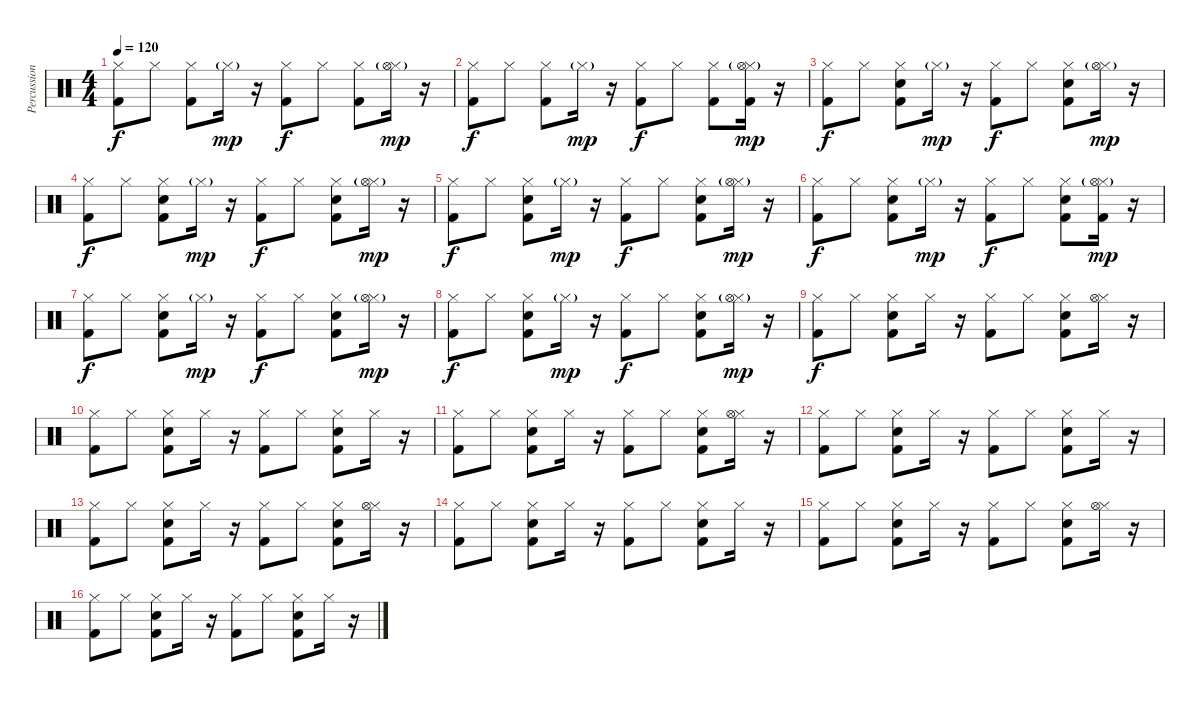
\track ("Percussion" "Percussion") {instrument percussion}
\staff {score}
\articulation defaults
\ts (4 4)
\tempo 120
\clef neutral
\ks c
("Hi-Hat (closed)" "Kick (hit) 2").8{dy f} "Hi-Hat (closed)".8 ("Hi-Hat (closed)" "Kick (hit) 2").8 "Hi-Hat (closed)"{g}.16{dy mp} r.16 ("Hi-Hat (closed)" "Kick (hit) 2").8{dy f} "Hi-Hat (closed)".8 ("Hi-Hat (closed)" "Kick (hit) 2").8 ("Hi-Hat (closed)"{g} "Hi-Hat (open)"{g}).16{dy mp} r.16 |
("Hi-Hat (closed)" "Kick (hit) 2").8{dy f} "Hi-Hat (closed)".8 ("Hi-Hat (closed)" "Kick (hit) 2").8 "Hi-Hat (closed)"{g}.16{dy mp} r.16 ("Hi-Hat (closed)" "Kick (hit) 2").8{dy f} "Hi-Hat (closed)".8 ("Hi-Hat (closed)" "Kick (hit) 2").8 ("Hi-Hat (closed)"{g} "Hi-Hat (open)"{g} "Kick (hit) 2").16{dy mp} r.16 |
("Hi-Hat (closed)" "Kick (hit) 2").8{dy f} "Hi-Hat (closed)".8 ("Hi-Hat (closed)" "Kick (hit) 2" "Hand Clap (hit)").8 "Hi-Hat (closed)"{g}.16{dy mp} r.16 ("Hi-Hat (closed)" "Kick (hit) 2").8{dy f} "Hi-Hat (closed)".8 ("Hi-Hat (closed)" "Kick (hit) 2" "Hand Clap (hit)").8 ("Hi-Hat (closed)"{g} "Hi-Hat (open)"{g}).16{dy mp} r.16 |
("Hi-Hat (closed)" "Kick (hit) 2").8{dy f} "Hi-Hat (closed)".8 ("Hi-Hat (closed)" "Kick (hit) 2" "Hand Clap (hit)").8 "Hi-Hat (closed)"{g}.16{dy mp} r.16 ("Hi-Hat (closed)" "Kick (hit) 2").8{dy f} "Hi-Hat (closed)".8 ("Hi-Hat (closed)" "Kick (hit) 2" "Hand Clap (hit)").8 ("Hi-Hat (closed)"{g} "Hi-Hat (open)"{g}).16{dy mp} r.16 |
("Hi-Hat (closed)" "Kick (hit) 2").8{dy f} "Hi-Hat (closed)".8 ("Hi-Hat (closed)" "Kick (hit) 2" "Hand Clap (hit)").8 "Hi-Hat (closed)"{g}.16{dy mp} r.16 ("Hi-Hat (closed)" "Kick (hit) 2").8{dy f} "Hi-Hat (closed)".8 ("Hi-Hat (closed)" "Kick (hit) 2" "Hand Clap (hit)").8 ("Hi-Hat (closed)"{g} "Hi-Hat (open)"{g}).16{dy mp} r.16 |
("Hi-Hat (closed)" "Kick (hit) 2").8{dy f} "Hi-Hat (closed)".8 ("Hi-Hat (closed)" "Kick (hit) 2" "Hand Clap (hit)").8 "Hi-Hat (closed)"{g}.16{dy mp} r.16 ("Hi-Hat (closed)" "Kick (hit) 2").8{dy f} "Hi-Hat (closed)".8 ("Hi-Hat (closed)" "Kick (hit) 2" "Hand Clap (hit)").8 ("Hi-Hat (closed)"{g} "Hi-Hat (open)"{g} "Kick (hit) 2").16{dy mp} r.16 |
("Hi-Hat (closed)" "Kick (hit) 2").8{dy f} "Hi-Hat (closed)".8 ("Hi-Hat (closed)" "Kick (hit) 2" "Hand Clap (hit)").8 "Hi-Hat (closed)"{g}.16{dy mp} r.16 ("Hi-Hat (closed)" "Kick (hit) 2").8{dy f} "Hi-Hat (closed)".8 ("Hi-Hat (closed)" "Kick (hit) 2" "Hand Clap (hit)").8 ("Hi-Hat (closed)"{g} "Hi-Hat (open)"{g}).16{dy mp} r.16 |
("Hi-Hat (closed)" "Kick (hit) 2").8{dy f} "Hi-Hat (closed)".8 ("Hi-Hat (closed)" "Kick (hit) 2" "Hand Clap (hit)").8 "Hi-Hat (closed)"{g}.16{dy mp} r.16 ("Hi-Hat (closed)" "Kick (hit) 2").8{dy f} "Hi-Hat (closed)".8 ("Hi-Hat (closed)" "Kick (hit) 2" "Hand Clap (hit)").8 ("Hi-Hat (closed)"{g} "Hi-Hat (open)"{g}).16{dy mp} r.16 |
("Hi-Hat (closed)" "Kick (hit) 2").8{dy f} "Hi-Hat (closed)".8 ("Hi-Hat (closed)" "Kick (hit) 2" "Hand Clap (hit)").8 "Hi-Hat (closed)".16 r.16 ("Hi-Hat (closed)" "Kick (hit) 2").8 "Hi-Hat (closed)".8 ("Hi-Hat (closed)" "Kick (hit) 2" "Hand Clap (hit)").8 ("Hi-Hat (closed)" "Hi-Hat (open)").16 r.16 |
("Hi-Hat (closed)" "Kick (hit) 2").8 "Hi-Hat (closed)".8 ("Hi-Hat (closed)" "Kick (hit) 2" "Hand Clap (hit)").8 "Hi-Hat (closed)".16 r.16 ("Hi-Hat (closed)" "Kick (hit) 2").8 "Hi-Hat (closed)".8 ("Hi-Hat (closed)" "Kick (hit) 2" "Hand Clap (hit)").8 "Hi-Hat (closed)".16 r.16 |
("Hi-Hat (closed)" "Kick (hit) 2").8 "Hi-Hat (closed)".8 ("Hi-Hat (closed)" "Kick (hit) 2" "Hand Clap (hit)").8 "Hi-Hat (closed)".16 r.16 ("Hi-Hat (closed)" "Kick (hit) 2").8 "Hi-Hat (closed)".8 ("Hi-Hat (closed)" "Kick (hit) 2" "Hand Clap (hit)").8 ("Hi-Hat (closed)" "Hi-Hat (open)").16 r.16 |
("Hi-Hat (closed)" "Kick (hit) 2").8 "Hi-Hat (closed)".8 ("Hi-Hat (closed)" "Kick (hit) 2" "Hand Clap (hit)").8 "Hi-Hat (closed)".16 r.16 ("Hi-Hat (closed)" "Kick (hit) 2").8 "Hi-Hat (closed)".8 ("Hi-Hat (closed)" "Kick (hit) 2" "Hand Clap (hit)").8 "Hi-Hat (closed)".16 r.16 |
("Hi-Hat (closed)" "Kick (hit) 2").8 "Hi-Hat (closed)".8 ("Hi-Hat (closed)" "Kick (hit) 2" "Hand Clap (hit)").8 "Hi-Hat (closed)".16 r.16 ("Hi-Hat (closed)" "Kick (hit) 2").8 "Hi-Hat (closed)".8 ("Hi-Hat (closed)" "Kick (hit) 2" "Hand Clap (hit)").8 ("Hi-Hat (closed)" "Hi-Hat (open)").16 r.16 |
("Hi-Hat (closed)" "Kick (hit) 2").8 "Hi-Hat (closed)".8 ("Hi-Hat (closed)" "Kick (hit) 2" "Hand Clap (hit)").8 "Hi-Hat (closed)".16 r.16 ("Hi-Hat (closed)" "Kick (hit) 2").8 "Hi-Hat (closed)".8 ("Hi-Hat (closed)" "Kick (hit) 2" "Hand Clap (hit)").8 "Hi-Hat (closed)".16 r.16 |
("Hi-Hat (closed)" "Kick (hit) 2").8 "Hi-Hat (closed)".8 ("Hi-Hat (closed)" "Kick (hit) 2" "Hand Clap (hit)").8 "Hi-Hat (closed)".16 r.16 ("Hi-Hat (closed)" "Kick (hit) 2").8 "Hi-Hat (closed)".8 ("Hi-Hat (closed)" "Kick (hit) 2" "Hand Clap (hit)").8 ("Hi-Hat (closed)" "Hi-Hat (open)").16 r.16 |
("Hi-Hat (closed)" "Kick (hit) 2").8 "Hi-Hat (closed)".8 ("Hi-Hat (closed)" "Kick (hit) 2" "Hand Clap (hit)").8 "Hi-Hat (closed)".16 r.16 ("Hi-Hat (closed)" "Kick (hit) 2").8 "Hi-Hat (closed)".8 ("Hi-Hat (closed)" "Kick (hit) 2" "Hand Clap (hit)").8 "Hi-Hat (closed)".16 r.16
